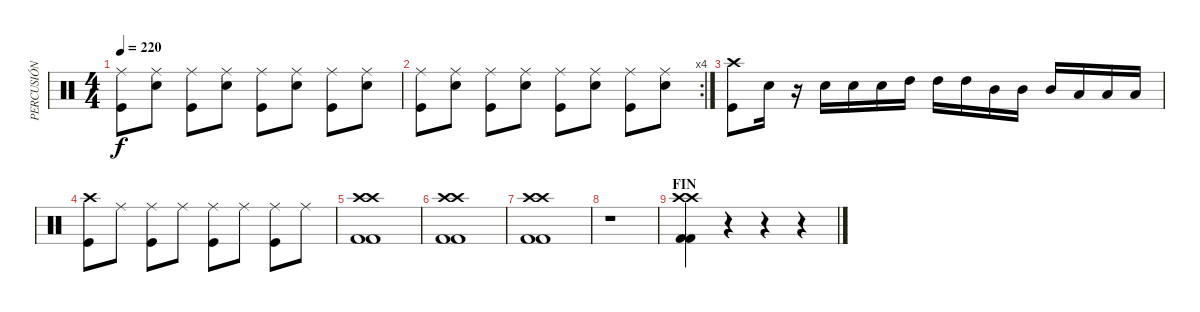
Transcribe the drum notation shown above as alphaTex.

\track ("PERCUSIÓN" "PERCUSIÓN") {instrument percussion}
\staff {score}
\articulation defaults
\ts (4 4)
\tempo 220
\clef neutral
\ks c
("Ride (middle)" "Kick (hit)").8{dy f} ("Ride (middle)" "Snare (hit) 2").8 ("Ride (middle)" "Kick (hit)").8 ("Ride (middle)" "Snare (hit) 2").8 ("Ride (middle)" "Kick (hit)").8 ("Ride (middle)" "Snare (hit) 2").8 ("Ride (middle)" "Kick (hit)").8 ("Ride (middle)" "Snare (hit) 2").8 |
\rc 4
("Ride (middle)" "Kick (hit)").8 ("Ride (middle)" "Snare (hit) 2").8 ("Ride (middle)" "Kick (hit)").8 ("Ride (middle)" "Snare (hit) 2").8 ("Ride (middle)" "Kick (hit)").8 ("Ride (middle)" "Snare (hit) 2").8 ("Ride (middle)" "Kick (hit)").8 ("Ride (middle)" "Snare (hit) 2").8 |
("Crash high (hit)" "Kick (hit)").8 "Snare (hit) 2".16 r.16 "Snare (hit) 2".16 "Snare (hit) 2".16 "Snare (hit) 2".16 "High Tom (hit)".16 "High Tom (hit)".16 "High Tom (hit)".16 "Mid Tom (hit)".16 "Mid Tom (hit)".16 "Mid Tom (hit)".16 "Low Tom (hit)".16 "Low Tom (hit)".16 "Low Tom (hit)".16 |
("Crash high (hit)" "Kick (hit)").8 "Ride (middle)".8 ("Ride (middle)" "Kick (hit)").8 "Ride (middle)".8 ("Ride (middle)" "Kick (hit)").8 "Ride (middle)".8 ("Ride (middle)" "Kick (hit)").8 "Ride (middle)".8 |
("Crash high (hit)" "Kick (hit) 2" "Crash high (hit)" "Kick (hit) 2").1 |
("Crash high (hit)" "Kick (hit) 2" "Crash high (hit)" "Kick (hit) 2").1 |
("Kick (hit) 2" "Crash high (hit)" "Kick (hit) 2" "Crash high (hit)").1 |
r.1 |
\section ("" "FIN")
("Crash high (hit)" "Kick (hit) 2" "Crash high (hit)" "Kick (hit) 2").4 r.4 r.4 r.4
